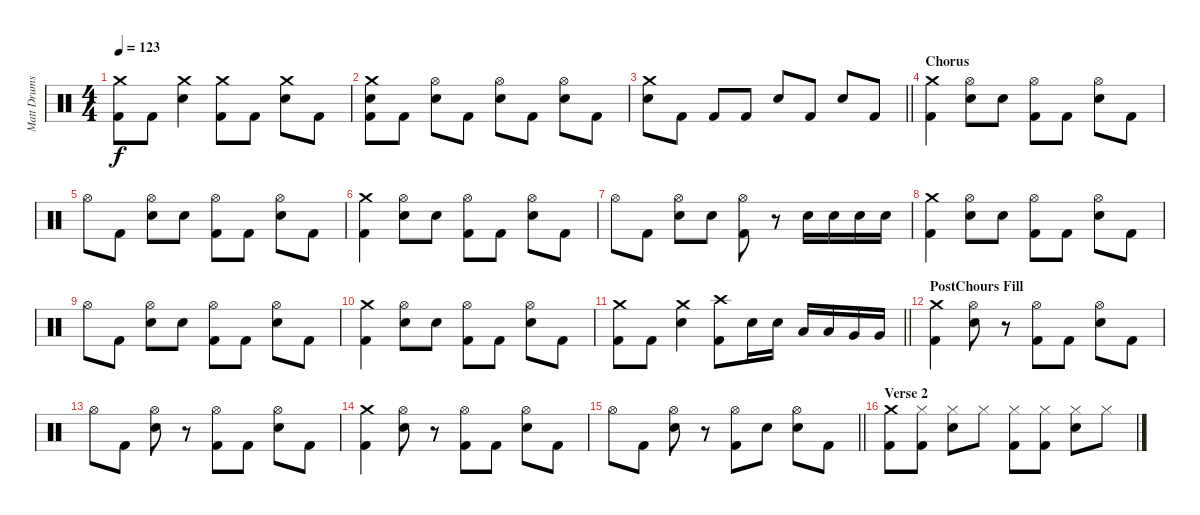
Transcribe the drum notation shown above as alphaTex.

\track ("Matt Drums" "Matt Drums") {instrument percussion}
\staff {score}
\articulation defaults
\ts (4 4)
\tempo 123
\clef neutral
\ks c
("Crash medium (hit)" "Kick (hit) 2").8{dy f} "Kick (hit) 2".8 ("Crash medium (hit)" "Snare (hit) 2").4 ("Crash medium (hit)" "Kick (hit) 2").8 "Kick (hit) 2".8 ("Crash medium (hit)" "Snare (hit) 2").8 "Kick (hit) 2".8 |
("Snare (hit) 2" "Crash medium (hit)" "Kick (hit) 2").8 "Kick (hit) 2".8 ("Hi-Hat (open)" "Snare (hit) 2").8 "Kick (hit) 2".8 ("Hi-Hat (open)" "Snare (hit) 2").8 "Kick (hit) 2".8 ("Hi-Hat (open)" "Snare (hit) 2").8 "Kick (hit) 2".8 |
\barLineRight lightlight
("Crash medium (hit)" "Snare (hit) 2").8 "Kick (hit) 2".8 "Kick (hit) 2".8 "Kick (hit) 2".8 "Snare (hit) 2".8 "Kick (hit) 2".8 "Snare (hit) 2".8 "Kick (hit) 2".8 |
\section ("" "Chorus")
("Crash medium (hit)" "Kick (hit) 2").4 ("Hi-Hat (open)" "Snare (hit) 2").8 "Snare (hit) 2".8 ("Hi-Hat (open)" "Kick (hit) 2").8 "Kick (hit) 2".8 ("Hi-Hat (open)" "Snare (hit) 2").8 "Kick (hit) 2".8 |
"Hi-Hat (open)".8 "Kick (hit) 2".8 ("Hi-Hat (open)" "Snare (hit) 2").8 "Snare (hit) 2".8 ("Hi-Hat (open)" "Kick (hit) 2").8 "Kick (hit) 2".8 ("Hi-Hat (open)" "Snare (hit) 2").8 "Kick (hit) 2".8 |
("Crash medium (hit)" "Kick (hit) 2").4 ("Hi-Hat (open)" "Snare (hit) 2").8 "Snare (hit) 2".8 ("Hi-Hat (open)" "Kick (hit) 2").8 "Kick (hit) 2".8 ("Hi-Hat (open)" "Snare (hit) 2").8 "Kick (hit) 2".8 |
"Hi-Hat (open)".8 "Kick (hit) 2".8 ("Hi-Hat (open)" "Snare (hit) 2").8 "Snare (hit) 2".8 ("Hi-Hat (open)" "Kick (hit) 2").8 r.8 "Snare (hit) 2".16 "Snare (hit) 2".16 "Snare (hit) 2".16 "Snare (hit) 2".16 |
("Crash medium (hit)" "Kick (hit) 2").4 ("Hi-Hat (open)" "Snare (hit) 2").8 "Snare (hit) 2".8 ("Hi-Hat (open)" "Kick (hit) 2").8 "Kick (hit) 2".8 ("Hi-Hat (open)" "Snare (hit) 2").8 "Kick (hit) 2".8 |
"Hi-Hat (open)".8 "Kick (hit) 2".8 ("Hi-Hat (open)" "Snare (hit) 2").8 "Snare (hit) 2".8 ("Hi-Hat (open)" "Kick (hit) 2").8 "Kick (hit) 2".8 ("Hi-Hat (open)" "Snare (hit) 2").8 "Kick (hit) 2".8 |
("Crash medium (hit)" "Kick (hit) 2").4 ("Hi-Hat (open)" "Snare (hit) 2").8 "Snare (hit) 2".8 ("Hi-Hat (open)" "Kick (hit) 2").8 "Kick (hit) 2".8 ("Hi-Hat (open)" "Snare (hit) 2").8 "Kick (hit) 2".8 |
\barLineRight lightlight
("Crash medium (hit)" "Kick (hit) 2").8 "Kick (hit) 2".8 ("Crash medium (hit)" "Snare (hit) 2").4 ("Crash high (hit)" "Kick (hit) 2").8 "Snare (hit) 2".16 "Snare (hit) 2".16 "Low Tom (hit)".16 "Low Tom (hit)".16 "Very Low Tom (hit)".16 "Very Low Tom (hit)".16 |
\section ("" "PostChours Fill")
("Crash medium (hit)" "Kick (hit) 2").4 ("Hi-Hat (open)" "Snare (hit) 2").8 r.8 ("Hi-Hat (open)" "Kick (hit) 2").8 "Kick (hit) 2".8 ("Hi-Hat (open)" "Snare (hit) 2").8 "Kick (hit) 2".8 |
"Hi-Hat (open)".8 "Kick (hit) 2".8 ("Hi-Hat (open)" "Snare (hit) 2").8 r.8 ("Hi-Hat (open)" "Kick (hit) 2").8 "Kick (hit) 2".8 ("Hi-Hat (open)" "Snare (hit) 2").8 "Kick (hit) 2".8 |
("Crash medium (hit)" "Kick (hit) 2").4 ("Hi-Hat (open)" "Snare (hit) 2").8 r.8 ("Hi-Hat (open)" "Kick (hit) 2").8 "Kick (hit) 2".8 ("Hi-Hat (open)" "Snare (hit) 2").8 "Kick (hit) 2".8 |
\barLineRight lightlight "Hi-Hat (open)".8 "Kick (hit) 2".8
("Hi-Hat (open)" "Snare (hit) 2").8 r.8 ("Hi-Hat (open)" "Kick (hit) 2").8 "Snare (hit) 2".8 ("Hi-Hat (open)" "Snare (hit) 2").8 "Kick (hit) 2".8 |
\section ("" "Verse 2")
("Crash medium (hit)" "Kick (hit) 2").8 ("Hi-Hat (closed)" "Kick (hit) 2").8 ("Hi-Hat (closed)" "Snare (hit) 2").8 "Hi-Hat (closed)".8 ("Hi-Hat (closed)" "Kick (hit) 2").8 ("Hi-Hat (closed)" "Kick (hit) 2").8 ("Hi-Hat (closed)" "Snare (hit) 2").8 "Hi-Hat (closed)".8
